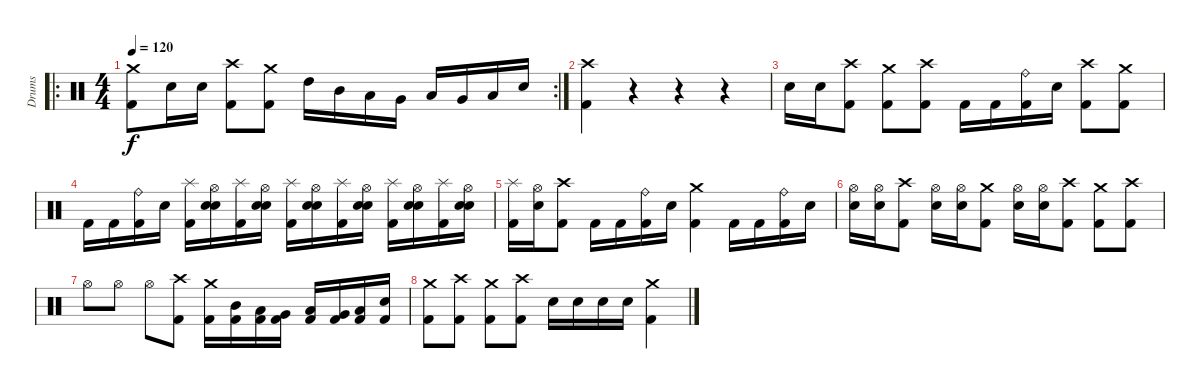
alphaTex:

\track ("Drums" "Drums") {instrument percussion}
\staff {score}
\articulation defaults
\ro
\rc 2
\ts (4 4)
\tempo 120
\clef neutral
\ks c
("Crash medium (hit)" "Kick (hit) 2").8{dy f} "Electric Snare (hit)".16 "Electric Snare (hit)".16 ("Crash high (hit)" "Kick (hit) 2").8 ("Crash medium (hit)" "Kick (hit) 2").8 "High Tom (hit)".16 "Mid Tom (hit)".16 "Low Tom (hit)".16 "Very Low Tom (hit)".16 "Low Tom (hit)".16 "Very Low Tom (hit)".16 "Low Floor Tom (hit)".16 "Electric Snare (hit)".16 |
("Crash high (hit)" "Kick (hit) 2").4 r.4 r.4 r.4 |
"Electric Snare (hit)".16 "Electric Snare (hit)".16 ("Crash high (hit)" "Kick (hit) 2").8 ("Crash medium (hit)" "Kick (hit) 2").8 ("Crash high (hit)" "Kick (hit) 2").8 "Kick (hit) 2".16 "Kick (hit) 2".16 ("Ride (bell)" "Kick (hit) 2").16 "Electric Snare (hit)".16 ("Crash high (hit)" "Kick (hit) 2").8 ("Crash medium (hit)" "Kick (hit) 2").8 |
"Kick (hit) 2".16 "Kick (hit) 2".16 ("Ride (bell)" "Kick (hit) 2").16 "Electric Snare (hit)".16 ("Splash (hit)" "Kick (hit) 2").16 ("Electric Snare (hit)" "Hi-Hat (open)" "Snare (hit)").16 ("Splash (hit)" "Kick (hit) 2").16 ("Hi-Hat (open)" "Electric Snare (hit)" "Snare (hit)").16 ("Splash (hit)" "Kick (hit) 2").16 ("Hi-Hat (open)" "Electric Snare (hit)" "Snare (hit)").16 ("Splash (hit)" "Kick (hit) 2").16 ("Hi-Hat (open)" "Electric Snare (hit)" "Snare (hit)").16 ("Splash (hit)" "Kick (hit) 2").16 ("Hi-Hat (open)" "Electric Snare (hit)" "Snare (hit)").16 ("Splash (hit)" "Kick (hit) 2").16 ("Hi-Hat (open)" "Electric Snare (hit)" "Snare (hit)").16 |
("Splash (hit)" "Kick (hit) 2").16 ("Hi-Hat (open)" "Electric Snare (hit)").16 ("Crash high (hit)" "Kick (hit) 2").8 "Kick (hit) 2".16 "Kick (hit) 2".16 ("Ride (bell)" "Kick (hit) 2").16 "Electric Snare (hit)".16 ("Crash medium (hit)" "Kick (hit) 2").4 "Kick (hit) 2".16 "Kick (hit) 2".16 ("Ride (bell)" "Kick (hit) 2").16 "Electric Snare (hit)".16 |
("Hi-Hat (open)" "Electric Snare (hit)").16 ("Hi-Hat (open)" "Electric Snare (hit)").16 ("Crash high (hit)" "Kick (hit) 2").8 ("Hi-Hat (open)" "Electric Snare (hit)").16 ("Hi-Hat (open)" "Electric Snare (hit)").16 ("Crash medium (hit)" "Kick (hit) 2").8 ("Hi-Hat (open)" "Electric Snare (hit)").16 ("Hi-Hat (open)" "Electric Snare (hit)").16 ("Crash high (hit)" "Kick (hit) 2").8 ("Crash medium (hit)" "Kick (hit) 2").8 ("Crash high (hit)" "Kick (hit) 2").8 |
"Hi-Hat (open)".8 "Hi-Hat (open)".8 "Hi-Hat (open)".8 ("Crash high (hit)" "Kick (hit) 2").8 ("Crash medium (hit)" "Kick (hit) 2").16 ("Mid Tom (hit)" "Kick (hit) 2").16 ("Low Tom (hit)" "Kick (hit) 2").16 ("Very Low Tom (hit)" "Kick (hit) 2").16 ("Low Tom (hit)" "Kick (hit) 2").16 ("Very Low Tom (hit)" "Kick (hit) 2").16 ("Low Floor Tom (hit)" "Kick (hit) 2").16 ("Electric Snare (hit)" "Kick (hit) 2").16 |
("Crash medium (hit)" "Kick (hit) 2").8 ("Crash high (hit)" "Kick (hit) 2").8 ("Crash medium (hit)" "Kick (hit) 2").8 ("Crash high (hit)" "Kick (hit) 2").8 "Electric Snare (hit)".16 "Snare (hit) 2".16 "Electric Snare (hit)".16 "Snare (hit) 2".16 ("Crash medium (hit)" "Kick (hit) 2").4
